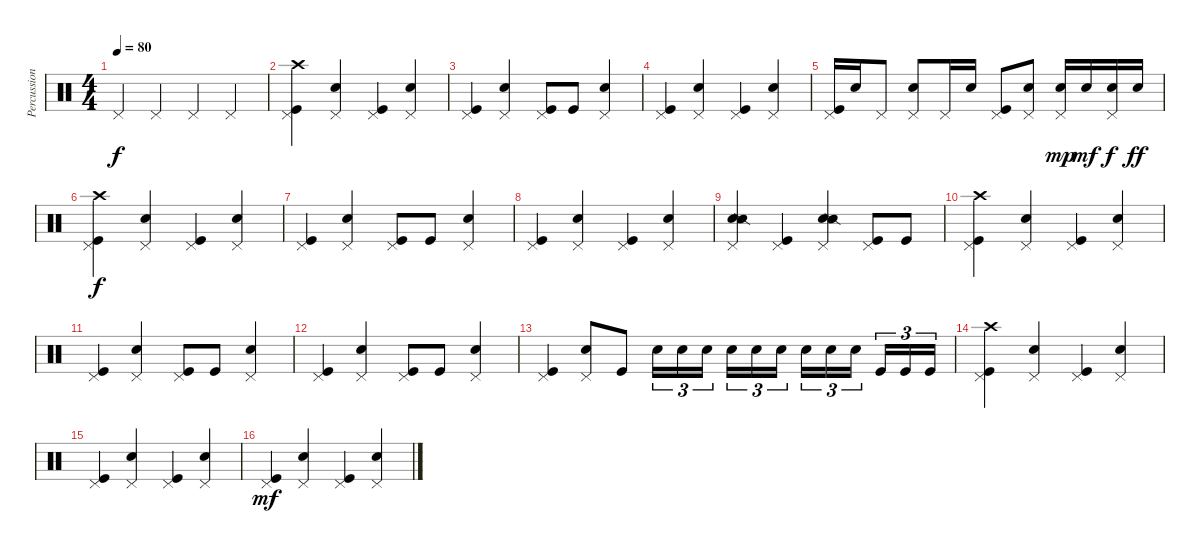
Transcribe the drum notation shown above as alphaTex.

\track ("Percussion" "Percussion") {instrument percussion}
\staff {score}
\articulation defaults
\ts (4 4)
\tempo 80
\clef neutral
\ks c "Pedal Hi-Hat (hit)".4{dy f} "Pedal Hi-Hat (hit)".4 "Pedal Hi-Hat (hit)".4 "Pedal Hi-Hat (hit)".4
|
("Kick (hit)" "Pedal Hi-Hat (hit)" "Crash high (hit)").4 ("Snare (hit) 2" "Pedal Hi-Hat (hit)").4 ("Kick (hit)" "Pedal Hi-Hat (hit)").4 ("Snare (hit) 2" "Pedal Hi-Hat (hit)").4 |
("Kick (hit)" "Pedal Hi-Hat (hit)").4 ("Snare (hit) 2" "Pedal Hi-Hat (hit)").4 ("Kick (hit)" "Pedal Hi-Hat (hit)").8 "Kick (hit)".8 ("Snare (hit) 2" "Pedal Hi-Hat (hit)").4 |
("Kick (hit)" "Pedal Hi-Hat (hit)").4 ("Snare (hit) 2" "Pedal Hi-Hat (hit)").4 ("Kick (hit)" "Pedal Hi-Hat (hit)").4 ("Snare (hit) 2" "Pedal Hi-Hat (hit)").4 |
("Kick (hit)" "Pedal Hi-Hat (hit)").16 "Snare (hit) 2".16 "Pedal Hi-Hat (hit)".8 ("Snare (hit) 2" "Pedal Hi-Hat (hit)").8 "Pedal Hi-Hat (hit)".16 "Snare (hit) 2".16 ("Kick (hit)" "Pedal Hi-Hat (hit)").8 ("Snare (hit) 2" "Pedal Hi-Hat (hit)").8 ("Snare (hit) 2" "Pedal Hi-Hat (hit)").16{dy mp} "Snare (hit) 2".16{dy mf} ("Snare (hit) 2" "Pedal Hi-Hat (hit)").16{dy f} "Snare (hit) 2".16{dy ff} |
("Kick (hit)" "Pedal Hi-Hat (hit)" "Crash high (hit)").4{dy f} ("Snare (hit) 2" "Pedal Hi-Hat (hit)").4 ("Kick (hit)" "Pedal Hi-Hat (hit)").4 ("Snare (hit) 2" "Pedal Hi-Hat (hit)").4 |
("Kick (hit)" "Pedal Hi-Hat (hit)").4 ("Snare (hit) 2" "Pedal Hi-Hat (hit)").4 ("Kick (hit)" "Pedal Hi-Hat (hit)").8 "Kick (hit)".8 ("Snare (hit) 2" "Pedal Hi-Hat (hit)").4 |
("Kick (hit)" "Pedal Hi-Hat (hit)").4 ("Snare (hit) 2" "Pedal Hi-Hat (hit)").4 ("Kick (hit)" "Pedal Hi-Hat (hit)").4 ("Snare (hit) 2" "Pedal Hi-Hat (hit)").4 |
("Snare (hit) 2" "Pedal Hi-Hat (hit)" "Snare (side stick) 2").4 ("Kick (hit)" "Pedal Hi-Hat (hit)").4 ("Snare (hit) 2" "Pedal Hi-Hat (hit)" "Snare (side stick) 2").4 ("Kick (hit)" "Pedal Hi-Hat (hit)").8 "Kick (hit)".8 |
("Kick (hit)" "Pedal Hi-Hat (hit)" "Crash high (hit)").4 ("Snare (hit) 2" "Pedal Hi-Hat (hit)").4 ("Kick (hit)" "Pedal Hi-Hat (hit)").4 ("Snare (hit) 2" "Pedal Hi-Hat (hit)").4 |
("Kick (hit)" "Pedal Hi-Hat (hit)").4 ("Snare (hit) 2" "Pedal Hi-Hat (hit)").4 ("Kick (hit)" "Pedal Hi-Hat (hit)").8 "Kick (hit)".8 ("Snare (hit) 2" "Pedal Hi-Hat (hit)").4 |
("Kick (hit)" "Pedal Hi-Hat (hit)").4 ("Snare (hit) 2" "Pedal Hi-Hat (hit)").4 ("Kick (hit)" "Pedal Hi-Hat (hit)").8 "Kick (hit)".8 ("Snare (hit) 2" "Pedal Hi-Hat (hit)").4 |
("Kick (hit)" "Pedal Hi-Hat (hit)").4 ("Snare (hit) 2" "Pedal Hi-Hat (hit)").8 "Kick (hit)".8 "Snare (hit) 2".16{tu (3 2)} "Snare (hit) 2".16{tu (3 2)} "Snare (hit) 2".16{tu (3 2)} "Snare (hit) 2".16{tu (3 2)} "Snare (hit) 2".16{tu (3 2)} "Snare (hit) 2".16{tu (3 2)} "Snare (hit) 2".16{tu (3 2)} "Snare (hit) 2".16{tu (3 2)} "Snare (hit) 2".16{tu (3 2)} "Kick (hit)".16{tu (3 2)} "Kick (hit)".16{tu (3 2)} "Kick (hit)".16{tu (3 2)} |
("Kick (hit)" "Pedal Hi-Hat (hit)" "Crash high (hit)").4 ("Snare (hit) 2" "Pedal Hi-Hat (hit)").4 ("Kick (hit)" "Pedal Hi-Hat (hit)").4 ("Snare (hit) 2" "Pedal Hi-Hat (hit)").4 |
("Kick (hit)" "Pedal Hi-Hat (hit)").4 ("Snare (hit) 2" "Pedal Hi-Hat (hit)").4 ("Kick (hit)" "Pedal Hi-Hat (hit)").4 ("Snare (hit) 2" "Pedal Hi-Hat (hit)").4 |
("Kick (hit)" "Pedal Hi-Hat (hit)").4{dy mf} ("Snare (hit) 2" "Pedal Hi-Hat (hit)").4 ("Kick (hit)" "Pedal Hi-Hat (hit)").4 ("Snare (hit) 2" "Pedal Hi-Hat (hit)").4
